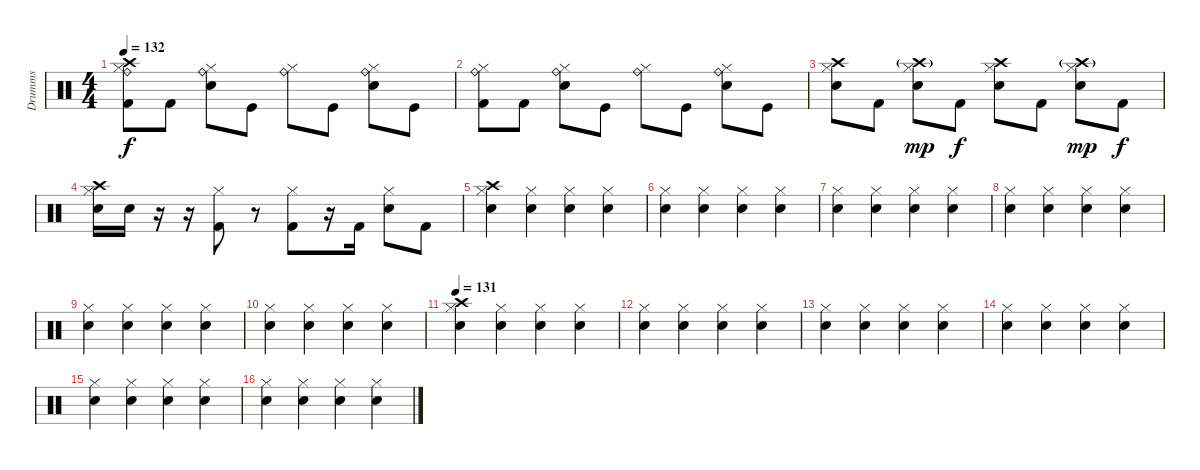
\track ("Drumms" "Drumms") {instrument percussion}
\staff {score}
\articulation defaults
\ts (4 4)
\tempo 132
\clef neutral
\ks c
("Ride (bell)" "Kick (hit) 2" "Hi-Hat (closed)" "Crash high (hit)").8{dy f} "Kick (hit) 2".8 ("Snare (hit) 2" "Ride (bell)" "Hi-Hat (closed)").8 "Kick (hit)".8 ("Ride (bell)" "Hi-Hat (closed)").8 "Kick (hit)".8 ("Snare (hit) 2" "Ride (bell)" "Hi-Hat (closed)").8 "Kick (hit)".8 |
("Ride (bell)" "Kick (hit) 2" "Hi-Hat (closed)").8 "Kick (hit) 2".8 ("Snare (hit) 2" "Ride (bell)" "Hi-Hat (closed)").8 "Kick (hit)".8 ("Ride (bell)" "Hi-Hat (closed)").8 "Kick (hit)".8 ("Snare (hit) 2" "Ride (bell)" "Hi-Hat (closed)").8 "Kick (hit)".8 |
("Crash high (hit)" "Snare (hit) 2" "Hi-Hat (closed)").8 "Kick (hit) 2".8 ("Crash high (hit)"{g} "Snare (hit) 2" "Hi-Hat (closed)").8{dy mp} "Kick (hit) 2".8{dy f} ("Crash high (hit)" "Snare (hit) 2" "Hi-Hat (closed)").8 "Kick (hit) 2".8 ("Crash high (hit)"{g} "Snare (hit) 2" "Hi-Hat (closed)").8{dy mp} "Kick (hit) 2".8{dy f} |
("Crash high (hit)" "Snare (hit) 2" "Hi-Hat (closed)").16 "Snare (hit) 2".16 r.16 r.16 ("Kick (hit) 2" "Hi-Hat (closed)").8 r.8 ("Kick (hit) 2" "Hi-Hat (closed)").8 r.16 "Kick (hit) 2".16 ("Hi-Hat (closed)" "Snare (hit) 2").8 "Kick (hit) 2".8 |
("Crash high (hit)" "Snare (hit) 2" "Hi-Hat (closed)").4 ("Snare (hit) 2" "Hi-Hat (closed)").4 ("Snare (hit) 2" "Hi-Hat (closed)").4 ("Snare (hit) 2" "Hi-Hat (closed)").4 |
("Snare (hit) 2" "Hi-Hat (closed)").4 ("Snare (hit) 2" "Hi-Hat (closed)").4 ("Snare (hit) 2" "Hi-Hat (closed)").4 ("Snare (hit) 2" "Hi-Hat (closed)").4 |
("Snare (hit) 2" "Hi-Hat (closed)").4 ("Snare (hit) 2" "Hi-Hat (closed)").4 ("Snare (hit) 2" "Hi-Hat (closed)").4 ("Snare (hit) 2" "Hi-Hat (closed)").4 |
("Snare (hit) 2" "Hi-Hat (closed)").4 ("Snare (hit) 2" "Hi-Hat (closed)").4 ("Snare (hit) 2" "Hi-Hat (closed)").4 ("Snare (hit) 2" "Hi-Hat (closed)").4 |
("Snare (hit) 2" "Hi-Hat (closed)").4 ("Snare (hit) 2" "Hi-Hat (closed)").4 ("Snare (hit) 2" "Hi-Hat (closed)").4 ("Snare (hit) 2" "Hi-Hat (closed)").4 |
("Snare (hit) 2" "Hi-Hat (closed)").4 ("Snare (hit) 2" "Hi-Hat (closed)").4 ("Snare (hit) 2" "Hi-Hat (closed)").4 ("Snare (hit) 2" "Hi-Hat (closed)").4 |
\tempo 131
("Snare (hit) 2" "Hi-Hat (closed)" "Crash high (hit)").4 ("Snare (hit) 2" "Hi-Hat (closed)").4 ("Snare (hit) 2" "Hi-Hat (closed)").4 ("Snare (hit) 2" "Hi-Hat (closed)").4 |
("Snare (hit) 2" "Hi-Hat (closed)").4 ("Snare (hit) 2" "Hi-Hat (closed)").4 ("Snare (hit) 2" "Hi-Hat (closed)").4 ("Snare (hit) 2" "Hi-Hat (closed)").4 |
("Snare (hit) 2" "Hi-Hat (closed)").4 ("Snare (hit) 2" "Hi-Hat (closed)").4 ("Snare (hit) 2" "Hi-Hat (closed)").4 ("Snare (hit) 2" "Hi-Hat (closed)").4 |
("Snare (hit) 2" "Hi-Hat (closed)").4 ("Snare (hit) 2" "Hi-Hat (closed)").4 ("Snare (hit) 2" "Hi-Hat (closed)").4 ("Snare (hit) 2" "Hi-Hat (closed)").4 |
("Snare (hit) 2" "Hi-Hat (closed)").4 ("Snare (hit) 2" "Hi-Hat (closed)").4 ("Snare (hit) 2" "Hi-Hat (closed)").4 ("Snare (hit) 2" "Hi-Hat (closed)").4 |
("Snare (hit) 2" "Hi-Hat (closed)").4 ("Snare (hit) 2" "Hi-Hat (closed)").4 ("Snare (hit) 2" "Hi-Hat (closed)").4 ("Snare (hit) 2" "Hi-Hat (closed)").4
